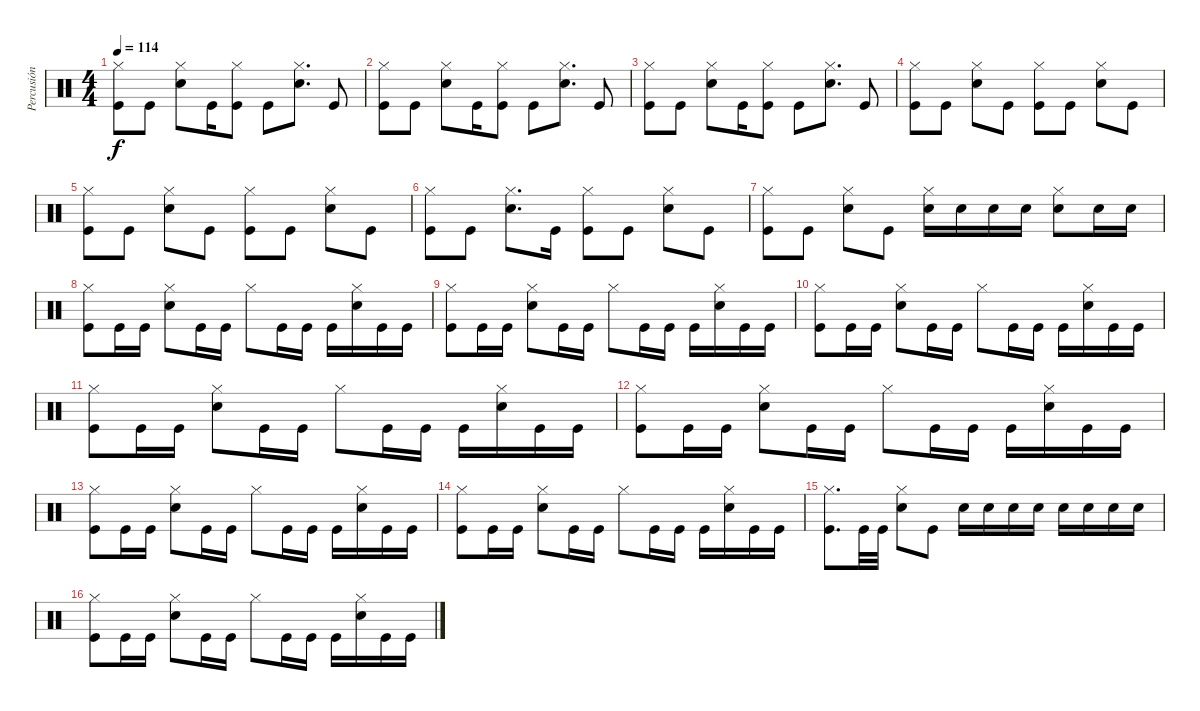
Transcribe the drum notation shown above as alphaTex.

\track ("Percusión" "Percusión") {instrument percussion}
\staff {score}
\articulation defaults
\ts (4 4)
\tempo 114
\clef neutral
\ks c
("Hi-Hat (closed)" "Kick (hit)").8{dy f} "Kick (hit)".8 ("Hi-Hat (closed)" "Snare (hit) 2").8 "Kick (hit)".16 ("Hi-Hat (closed)" "Kick (hit)").8 "Kick (hit)".8 ("Hi-Hat (closed)" "Snare (hit) 2").8{d} "Kick (hit)".8 |
("Hi-Hat (closed)" "Kick (hit)").8 "Kick (hit)".8 ("Hi-Hat (closed)" "Snare (hit) 2").8 "Kick (hit)".16 ("Hi-Hat (closed)" "Kick (hit)").8 "Kick (hit)".8 ("Hi-Hat (closed)" "Snare (hit) 2").8{d} "Kick (hit)".8 |
("Hi-Hat (closed)" "Kick (hit)").8 "Kick (hit)".8 ("Hi-Hat (closed)" "Snare (hit) 2").8 "Kick (hit)".16 ("Hi-Hat (closed)" "Kick (hit)").8 "Kick (hit)".8 ("Hi-Hat (closed)" "Snare (hit) 2").8{d} "Kick (hit)".8 |
("Hi-Hat (closed)" "Kick (hit)").8 "Kick (hit)".8 ("Hi-Hat (closed)" "Snare (hit) 2").8 "Kick (hit)".8 ("Hi-Hat (closed)" "Kick (hit)").8 "Kick (hit)".8 ("Hi-Hat (closed)" "Snare (hit) 2").8 "Kick (hit)".8 |
("Hi-Hat (closed)" "Kick (hit)").8 "Kick (hit)".8 ("Hi-Hat (closed)" "Snare (hit) 2").8 "Kick (hit)".8 ("Hi-Hat (closed)" "Kick (hit)").8 "Kick (hit)".8 ("Hi-Hat (closed)" "Snare (hit) 2").8 "Kick (hit)".8 |
("Hi-Hat (closed)" "Kick (hit)").8 "Kick (hit)".8 ("Hi-Hat (closed)" "Snare (hit) 2").8{d} "Kick (hit)".16 ("Hi-Hat (closed)" "Kick (hit)").8 "Kick (hit)".8 ("Hi-Hat (closed)" "Snare (hit) 2").8 "Kick (hit)".8 |
("Hi-Hat (closed)" "Kick (hit)").8 "Kick (hit)".8 ("Hi-Hat (closed)" "Snare (hit) 2").8 "Kick (hit)".8 ("Hi-Hat (closed)" "Snare (hit) 2").16 "Snare (hit) 2".16 "Snare (hit) 2".16 "Snare (hit) 2".16 ("Hi-Hat (closed)" "Snare (hit) 2").8 "Snare (hit) 2".16 "Snare (hit) 2".16 |
("Hi-Hat (closed)" "Kick (hit)").8 "Kick (hit)".16 "Kick (hit)".16 ("Hi-Hat (closed)" "Snare (hit) 2").8 "Kick (hit)".16 "Kick (hit)".16 "Hi-Hat (closed)".8 "Kick (hit)".16 "Kick (hit)".16 "Kick (hit)".16 ("Hi-Hat (closed)" "Snare (hit) 2").16 "Kick (hit)".16 "Kick (hit)".16 |
("Hi-Hat (closed)" "Kick (hit)").8 "Kick (hit)".16 "Kick (hit)".16 ("Hi-Hat (closed)" "Snare (hit) 2").8 "Kick (hit)".16 "Kick (hit)".16 "Hi-Hat (closed)".8 "Kick (hit)".16 "Kick (hit)".16 "Kick (hit)".16 ("Hi-Hat (closed)" "Snare (hit) 2").16 "Kick (hit)".16 "Kick (hit)".16 |
("Hi-Hat (closed)" "Kick (hit)").8 "Kick (hit)".16 "Kick (hit)".16 ("Hi-Hat (closed)" "Snare (hit) 2").8 "Kick (hit)".16 "Kick (hit)".16 "Hi-Hat (closed)".8 "Kick (hit)".16 "Kick (hit)".16 "Kick (hit)".16 ("Hi-Hat (closed)" "Snare (hit) 2").16 "Kick (hit)".16 "Kick (hit)".16 |
("Hi-Hat (closed)" "Kick (hit)").8 "Kick (hit)".16 "Kick (hit)".16 ("Hi-Hat (closed)" "Snare (hit) 2").8 "Kick (hit)".16 "Kick (hit)".16 "Hi-Hat (closed)".8 "Kick (hit)".16 "Kick (hit)".16 "Kick (hit)".16 ("Hi-Hat (closed)" "Snare (hit) 2").16 "Kick (hit)".16 "Kick (hit)".16 |
("Hi-Hat (closed)" "Kick (hit)").8 "Kick (hit)".16 "Kick (hit)".16 ("Hi-Hat (closed)" "Snare (hit) 2").8 "Kick (hit)".16 "Kick (hit)".16 "Hi-Hat (closed)".8 "Kick (hit)".16 "Kick (hit)".16 "Kick (hit)".16 ("Hi-Hat (closed)" "Snare (hit) 2").16 "Kick (hit)".16 "Kick (hit)".16 |
("Hi-Hat (closed)" "Kick (hit)").8 "Kick (hit)".16 "Kick (hit)".16 ("Hi-Hat (closed)" "Snare (hit) 2").8 "Kick (hit)".16 "Kick (hit)".16 "Hi-Hat (closed)".8 "Kick (hit)".16 "Kick (hit)".16 "Kick (hit)".16 ("Hi-Hat (closed)" "Snare (hit) 2").16 "Kick (hit)".16 "Kick (hit)".16 |
("Hi-Hat (closed)" "Kick (hit)").8 "Kick (hit)".16 "Kick (hit)".16 ("Hi-Hat (closed)" "Snare (hit) 2").8 "Kick (hit)".16 "Kick (hit)".16 "Hi-Hat (closed)".8 "Kick (hit)".16 "Kick (hit)".16 "Kick (hit)".16 ("Hi-Hat (closed)" "Snare (hit) 2").16 "Kick (hit)".16 "Kick (hit)".16 |
("Hi-Hat (closed)" "Kick (hit)").8{d} "Kick (hit)".32 "Kick (hit)".32 ("Hi-Hat (closed)" "Snare (hit) 2").8 "Kick (hit)".8 "Snare (hit) 2".16 "Snare (hit) 2".16 "Snare (hit) 2".16 "Snare (hit) 2".16 "Snare (hit) 2".16 "Snare (hit) 2".16 "Snare (hit) 2".16 "Snare (hit) 2".16 |
("Hi-Hat (closed)" "Kick (hit)").8 "Kick (hit)".16 "Kick (hit)".16 ("Hi-Hat (closed)" "Snare (hit) 2").8 "Kick (hit)".16 "Kick (hit)".16 "Hi-Hat (closed)".8 "Kick (hit)".16 "Kick (hit)".16 "Kick (hit)".16 ("Hi-Hat (closed)" "Snare (hit) 2").16 "Kick (hit)".16 "Kick (hit)".16
